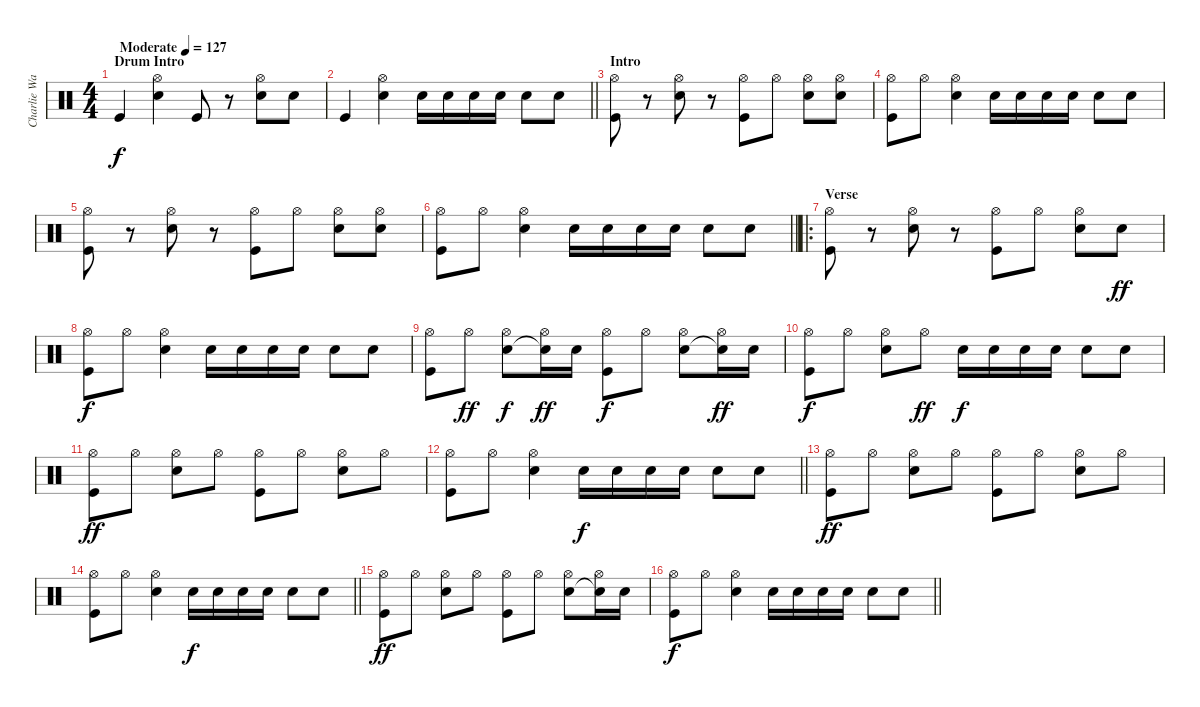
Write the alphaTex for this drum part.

\track ("Charlie Watts" "Charlie Wa") {instrument percussion}
\staff {score}
\articulation defaults
\ts (4 4)
\section ("" "Drum Intro")
\tempo (127 "Moderate")
\clef neutral
\ks c "Kick (hit)".4{dy f}
("Hi-Hat (open)" "Snare (hit) 2").4 "Kick (hit)".8 r.8 ("Hi-Hat (open)" "Snare (hit) 2").8 "Snare (hit) 2".8 |
\barLineRight lightlight "Kick (hit)".4
("Hi-Hat (open)" "Snare (hit) 2").4 "Snare (hit) 2".16 "Snare (hit) 2".16 "Snare (hit) 2".16 "Snare (hit) 2".16 "Snare (hit) 2".8 "Snare (hit) 2".8 |
\section ("" "Intro")
("Hi-Hat (open)" "Kick (hit)").8 r.8 ("Hi-Hat (open)" "Snare (hit) 2").8 r.8 ("Hi-Hat (open)" "Kick (hit)").8 "Hi-Hat (open)".8 ("Hi-Hat (open)" "Snare (hit) 2").8 ("Hi-Hat (open)" "Snare (hit) 2").8 |
("Hi-Hat (open)" "Kick (hit)").8 "Hi-Hat (open)".8 ("Hi-Hat (open)" "Snare (hit) 2").4 "Snare (hit) 2".16 "Snare (hit) 2".16 "Snare (hit) 2".16 "Snare (hit) 2".16 "Snare (hit) 2".8 "Snare (hit) 2".8 |
("Hi-Hat (open)" "Kick (hit)").8 r.8 ("Hi-Hat (open)" "Snare (hit) 2").8 r.8 ("Hi-Hat (open)" "Kick (hit)").8 "Hi-Hat (open)".8 ("Hi-Hat (open)" "Snare (hit) 2").8 ("Hi-Hat (open)" "Snare (hit) 2").8 |
\barLineRight lightlight
("Hi-Hat (open)" "Kick (hit)").8 "Hi-Hat (open)".8 ("Hi-Hat (open)" "Snare (hit) 2").4 "Snare (hit) 2".16 "Snare (hit) 2".16 "Snare (hit) 2".16 "Snare (hit) 2".16 "Snare (hit) 2".8 "Snare (hit) 2".8 |
\ro
\section ("" "Verse")
("Hi-Hat (open)" "Kick (hit)").8 r.8 ("Hi-Hat (open)" "Snare (hit) 2").8 r.8 ("Hi-Hat (open)" "Kick (hit)").8 "Hi-Hat (open)".8 ("Hi-Hat (open)" "Snare (hit) 2").8 "Snare (hit) 2".8{dy ff} |
("Hi-Hat (open)" "Kick (hit)").8{dy f} "Hi-Hat (open)".8 ("Hi-Hat (open)" "Snare (hit) 2").4 "Snare (hit) 2".16 "Snare (hit) 2".16 "Snare (hit) 2".16 "Snare (hit) 2".16 "Snare (hit) 2".8 "Snare (hit) 2".8 |
("Hi-Hat (open)" "Kick (hit)").8 "Hi-Hat (open)".8{dy ff} ("Hi-Hat (open)" "Snare (hit) 2").8{dy f} ("Hi-Hat (open)" "Snare (hit)"{t}).16{dy ff} "Snare (hit) 2".16 ("Hi-Hat (open)" "Kick (hit)").8{dy f} "Hi-Hat (open)".8 ("Hi-Hat (open)" "Snare (hit) 2").8 ("Hi-Hat (open)" "Snare (hit)"{t}).16{dy ff} "Snare (hit) 2".16 |
("Hi-Hat (open)" "Kick (hit)").8{dy f} "Hi-Hat (open)".8 ("Hi-Hat (open)" "Snare (hit) 2").8 "Hi-Hat (open)".8{dy ff} "Snare (hit) 2".16{dy f} "Snare (hit) 2".16 "Snare (hit) 2".16 "Snare (hit) 2".16 "Snare (hit) 2".8 "Snare (hit) 2".8 |
("Hi-Hat (open)" "Kick (hit)").8{dy ff} "Hi-Hat (open)".8 ("Hi-Hat (open)" "Snare (hit) 2").8 "Hi-Hat (open)".8 ("Hi-Hat (open)" "Kick (hit)").8 "Hi-Hat (open)".8 ("Hi-Hat (open)" "Snare (hit) 2").8 "Hi-Hat (open)".8 |
\barLineRight lightlight
("Hi-Hat (open)" "Kick (hit)").8 "Hi-Hat (open)".8 ("Hi-Hat (open)" "Snare (hit) 2").4 "Snare (hit) 2".16{dy f} "Snare (hit) 2".16 "Snare (hit) 2".16 "Snare (hit) 2".16 "Snare (hit) 2".8 "Snare (hit) 2".8 |
("Hi-Hat (open)" "Kick (hit)").8{dy ff} "Hi-Hat (open)".8 ("Hi-Hat (open)" "Snare (hit) 2").8 "Hi-Hat (open)".8 ("Hi-Hat (open)" "Kick (hit)").8 "Hi-Hat (open)".8 ("Hi-Hat (open)" "Snare (hit) 2").8 "Hi-Hat (open)".8 |
\barLineRight lightlight
("Hi-Hat (open)" "Kick (hit)").8 "Hi-Hat (open)".8 ("Hi-Hat (open)" "Snare (hit) 2").4 "Snare (hit) 2".16{dy f} "Snare (hit) 2".16 "Snare (hit) 2".16 "Snare (hit) 2".16 "Snare (hit) 2".8 "Snare (hit) 2".8 |
("Hi-Hat (open)" "Kick (hit)").8{dy ff} "Hi-Hat (open)".8 ("Hi-Hat (open)" "Snare (hit) 2").8 "Hi-Hat (open)".8 ("Hi-Hat (open)" "Kick (hit)").8 "Hi-Hat (open)".8 ("Hi-Hat (open)" "Snare (hit) 2").8 ("Hi-Hat (open)" "Snare (hit) 2"{t}).16 "Snare (hit) 2".16 |
\barLineRight lightlight
("Hi-Hat (open)" "Kick (hit)").8{dy f} "Hi-Hat (open)".8 ("Hi-Hat (open)" "Snare (hit) 2").4 "Snare (hit) 2".16 "Snare (hit) 2".16 "Snare (hit) 2".16 "Snare (hit) 2".16 "Snare (hit) 2".8 "Snare (hit) 2".8
